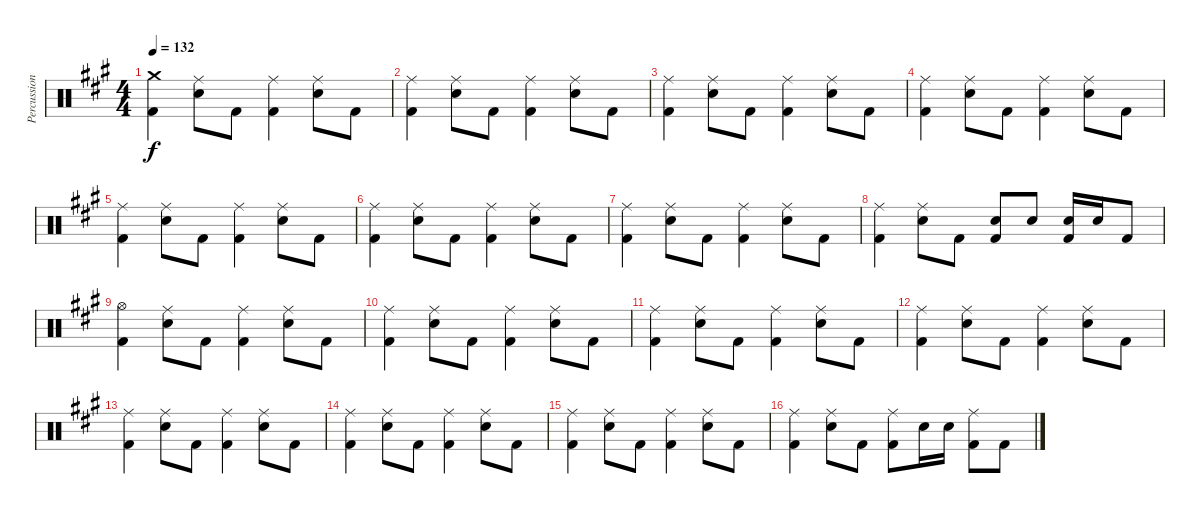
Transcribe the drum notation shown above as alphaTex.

\track ("Percussion" "Percussion") {instrument percussion}
\staff {score}
\articulation defaults
\ts (4 4)
\tempo 132
\clef neutral
\ks a
("Crash medium (hit)" "Kick (hit) 2").4{dy f} ("Ride (middle)" "Snare (hit) 2").8 "Kick (hit) 2".8 ("Ride (middle)" "Kick (hit) 2").4 ("Ride (middle)" "Snare (hit) 2").8 "Kick (hit) 2".8 |
("Ride (middle)" "Kick (hit) 2").4 ("Ride (middle)" "Snare (hit) 2").8 "Kick (hit) 2".8 ("Ride (middle)" "Kick (hit) 2").4 ("Ride (middle)" "Snare (hit) 2").8 "Kick (hit) 2".8 |
("Ride (middle)" "Kick (hit) 2").4 ("Ride (middle)" "Snare (hit) 2").8 "Kick (hit) 2".8 ("Ride (middle)" "Kick (hit) 2").4 ("Ride (middle)" "Snare (hit) 2").8 "Kick (hit) 2".8 |
("Ride (middle)" "Kick (hit) 2").4 ("Ride (middle)" "Snare (hit) 2").8 "Kick (hit) 2".8 ("Ride (middle)" "Kick (hit) 2").4 ("Ride (middle)" "Snare (hit) 2").8 "Kick (hit) 2".8 |
("Ride (middle)" "Kick (hit) 2").4 ("Ride (middle)" "Snare (hit) 2").8 "Kick (hit) 2".8 ("Ride (middle)" "Kick (hit) 2").4 ("Ride (middle)" "Snare (hit) 2").8 "Kick (hit) 2".8 |
("Ride (middle)" "Kick (hit) 2").4 ("Ride (middle)" "Snare (hit) 2").8 "Kick (hit) 2".8 ("Ride (middle)" "Kick (hit) 2").4 ("Ride (middle)" "Snare (hit) 2").8 "Kick (hit) 2".8 |
("Ride (middle)" "Kick (hit) 2").4 ("Ride (middle)" "Snare (hit) 2").8 "Kick (hit) 2".8 ("Ride (middle)" "Kick (hit) 2").4 ("Ride (middle)" "Snare (hit) 2").8 "Kick (hit) 2".8 |
("Ride (middle)" "Kick (hit) 2").4 ("Ride (middle)" "Snare (hit) 2").8 "Kick (hit) 2".8 ("Snare (hit) 2" "Kick (hit) 2").8 "Snare (hit) 2".8 ("Snare (hit) 2" "Kick (hit) 2").16 "Snare (hit) 2".16 "Kick (hit) 2".8 |
("Hi-Hat (open)" "Kick (hit) 2").4 ("Ride (middle)" "Snare (hit) 2").8 "Kick (hit) 2".8 ("Ride (middle)" "Kick (hit) 2").4 ("Ride (middle)" "Snare (hit) 2").8 "Kick (hit) 2".8 |
("Ride (middle)" "Kick (hit) 2").4 ("Ride (middle)" "Snare (hit) 2").8 "Kick (hit) 2".8 ("Ride (middle)" "Kick (hit) 2").4 ("Ride (middle)" "Snare (hit) 2").8 "Kick (hit) 2".8 |
("Ride (middle)" "Kick (hit) 2").4 ("Ride (middle)" "Snare (hit) 2").8 "Kick (hit) 2".8 ("Ride (middle)" "Kick (hit) 2").4 ("Ride (middle)" "Snare (hit) 2").8 "Kick (hit) 2".8 |
("Ride (middle)" "Kick (hit) 2").4 ("Ride (middle)" "Snare (hit) 2").8 "Kick (hit) 2".8 ("Ride (middle)" "Kick (hit) 2").4 ("Ride (middle)" "Snare (hit) 2").8 "Kick (hit) 2".8 |
("Ride (middle)" "Kick (hit) 2").4 ("Ride (middle)" "Snare (hit) 2").8 "Kick (hit) 2".8 ("Ride (middle)" "Kick (hit) 2").4 ("Ride (middle)" "Snare (hit) 2").8 "Kick (hit) 2".8 |
("Ride (middle)" "Kick (hit) 2").4 ("Ride (middle)" "Snare (hit) 2").8 "Kick (hit) 2".8 ("Ride (middle)" "Kick (hit) 2").4 ("Ride (middle)" "Snare (hit) 2").8 "Kick (hit) 2".8 |
("Ride (middle)" "Kick (hit) 2").4 ("Ride (middle)" "Snare (hit) 2").8 "Kick (hit) 2".8 ("Ride (middle)" "Kick (hit) 2").4 ("Ride (middle)" "Snare (hit) 2").8 "Kick (hit) 2".8 |
("Ride (middle)" "Kick (hit) 2").4 ("Ride (middle)" "Snare (hit) 2").8 "Kick (hit) 2".8 ("Ride (middle)" "Kick (hit) 2").8 "Snare (hit) 2".16 "Snare (hit) 2".16 ("Ride (middle)" "Kick (hit) 2").8 "Kick (hit) 2".8
